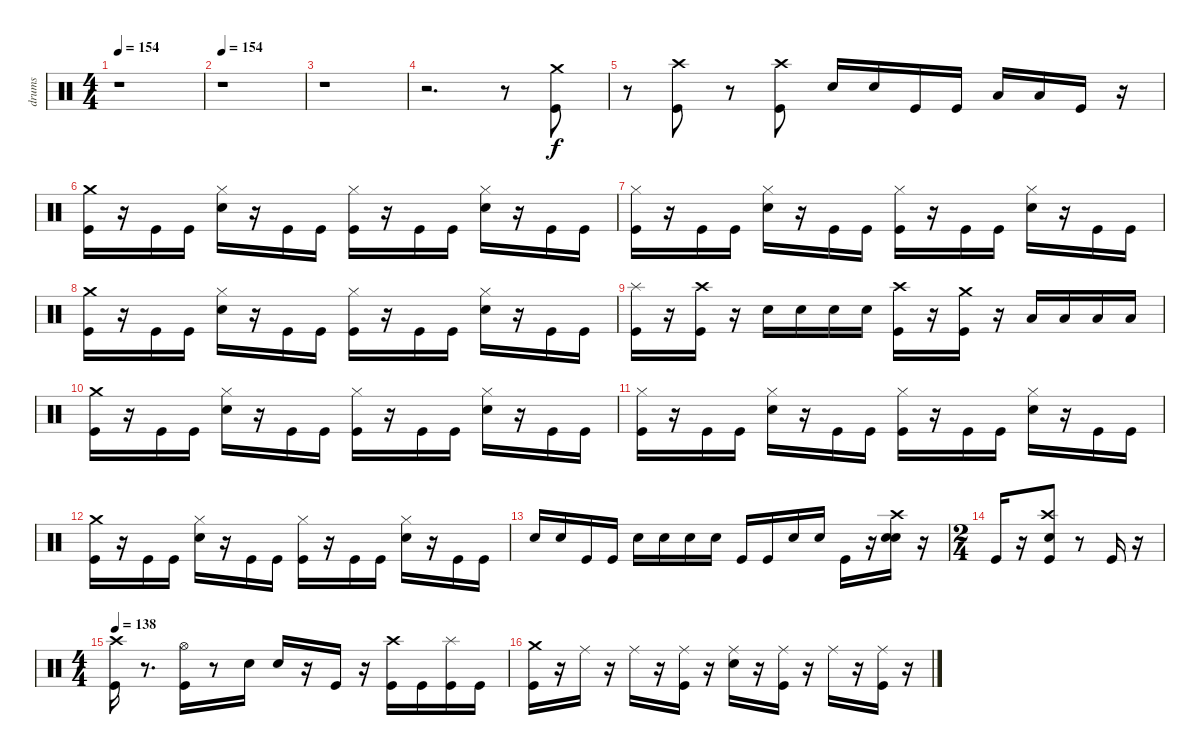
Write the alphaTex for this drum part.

\track ("drums" "drums") {instrument percussion}
\staff {score}
\articulation defaults
\ts (4 4)
\tempo 154
\clef neutral
\ks c
r.1{dy f} |
\tempo 154
r.1 |
r.1 |
r.2{d} r.8 ("Kick (hit)" "Crash medium (hit)").8 |
r.8 ("Kick (hit)" "Crash high (hit)").8 r.8 ("Kick (hit)" "Crash high (hit)").8 "Electric Snare (hit)".16 "Electric Snare (hit)".16 "Kick (hit)".16 "Kick (hit)".16 "Low Tom (hit)".16 "Low Tom (hit)".16 "Kick (hit)".16 r.16 |
("Crash medium (hit)" "Kick (hit)").16 r.16 "Kick (hit)".16 "Kick (hit)".16 ("Hi-Hat (closed)" "Snare (hit) 2").16 r.16 "Kick (hit)".16 "Kick (hit)".16 ("Hi-Hat (closed)" "Kick (hit)").16 r.16 "Kick (hit)".16 "Kick (hit)".16 ("Hi-Hat (closed)" "Electric Snare (hit)").16 r.16 "Kick (hit)".16 "Kick (hit)".16 |
("Hi-Hat (closed)" "Kick (hit)").16 r.16 "Kick (hit)".16 "Kick (hit)".16 ("Hi-Hat (closed)" "Snare (hit) 2").16 r.16 "Kick (hit)".16 "Kick (hit)".16 ("Hi-Hat (closed)" "Kick (hit)").16 r.16 "Kick (hit)".16 "Kick (hit)".16 ("Hi-Hat (closed)" "Electric Snare (hit)").16 r.16 "Kick (hit)".16 "Kick (hit)".16 |
("Crash medium (hit)" "Kick (hit)").16 r.16 "Kick (hit)".16 "Kick (hit)".16 ("Hi-Hat (closed)" "Snare (hit) 2").16 r.16 "Kick (hit)".16 "Kick (hit)".16 ("Hi-Hat (closed)" "Kick (hit)").16 r.16 "Kick (hit)".16 "Kick (hit)".16 ("Hi-Hat (closed)" "Electric Snare (hit)").16 r.16 "Kick (hit)".16 "Kick (hit)".16 |
("Splash (hit)" "Kick (hit)").16 r.16 ("Crash high (hit)" "Kick (hit)").16 r.16 "Electric Snare (hit)".16 "Electric Snare (hit)".16 "Snare (hit) 2".16 "Electric Snare (hit)".16 ("Crash high (hit)" "Kick (hit)").16 r.16 ("Crash medium (hit)" "Kick (hit)").16 r.16 "Low Tom (hit)".16 "Low Tom (hit)".16 "Low Tom (hit)".16 "Low Tom (hit)".16 |
("Crash medium (hit)" "Kick (hit)").16 r.16 "Kick (hit)".16 "Kick (hit)".16 ("Hi-Hat (closed)" "Snare (hit) 2").16 r.16 "Kick (hit)".16 "Kick (hit)".16 ("Hi-Hat (closed)" "Kick (hit)").16 r.16 "Kick (hit)".16 "Kick (hit)".16 ("Hi-Hat (closed)" "Electric Snare (hit)").16 r.16 "Kick (hit)".16 "Kick (hit)".16 |
("Hi-Hat (closed)" "Kick (hit)").16 r.16 "Kick (hit)".16 "Kick (hit)".16 ("Hi-Hat (closed)" "Snare (hit) 2").16 r.16 "Kick (hit)".16 "Kick (hit)".16 ("Hi-Hat (closed)" "Kick (hit)").16 r.16 "Kick (hit)".16 "Kick (hit)".16 ("Hi-Hat (closed)" "Electric Snare (hit)").16 r.16 "Kick (hit)".16 "Kick (hit)".16 |
("Crash medium (hit)" "Kick (hit)").16 r.16 "Kick (hit)".16 "Kick (hit)".16 ("Hi-Hat (closed)" "Snare (hit) 2").16 r.16 "Kick (hit)".16 "Kick (hit)".16 ("Hi-Hat (closed)" "Kick (hit)").16 r.16 "Kick (hit)".16 "Kick (hit)".16 ("Hi-Hat (closed)" "Electric Snare (hit)").16 r.16 "Kick (hit)".16 "Kick (hit)".16 |
"Electric Snare (hit)".16 "Electric Snare (hit)".16 "Kick (hit)".16 "Kick (hit)".16 "Electric Snare (hit)".16 "Electric Snare (hit)".16 "Electric Snare (hit)".16 "Electric Snare (hit)".16 "Kick (hit)".16 "Kick (hit)".16 "Electric Snare (hit)".16 "Snare (hit) 2".16 "Kick (hit)".16 r.16 ("Crash high (hit)" "Electric Snare (hit)" "Electric Snare (hit)").16 r.16 |
\ts (2 4)
"Kick (hit)".16 r.16 ("Kick (hit)" "Electric Snare (hit)" "Crash high (hit)").8 r.8 "Kick (hit)".16 r.16 |
\ts (4 4)
\tempo 138
("Crash high (hit)" "Kick (hit)").16 r.8{d} ("Hi-Hat (open)" "Kick (hit)").16 r.8 "Electric Snare (hit)".16 "Electric Snare (hit)".16 r.16 "Kick (hit)".16 r.16 ("Crash high (hit)" "Kick (hit)").16 "Kick (hit)".16 ("Splash (hit)" "Kick (hit)").16 "Kick (hit)".16 |
("Crash medium (hit)" "Kick (hit)").16 r.16 "Ride (middle)".16 r.16 "Ride (middle)".16 r.16 ("Ride (middle)" "Kick (hit)").16 r.16 ("Ride (middle)" "Snare (hit) 2").16 r.16 ("Ride (middle)" "Kick (hit)").16 r.16 "Ride (middle)".16 r.16 ("Ride (middle)" "Kick (hit)").16 r.16
